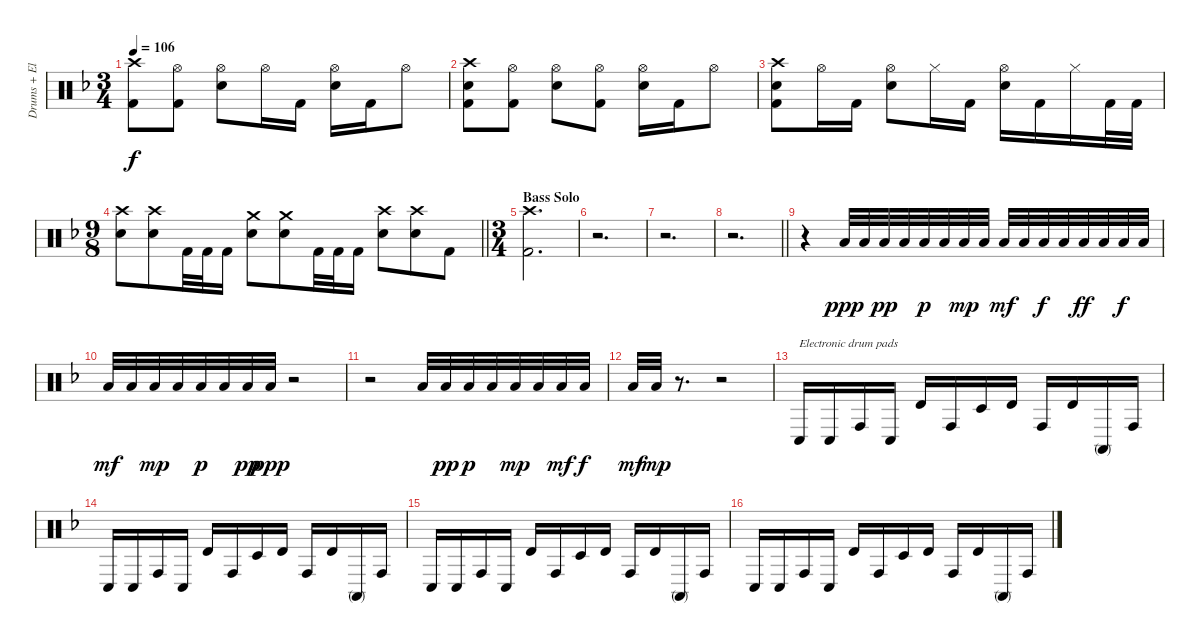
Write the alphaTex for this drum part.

\track ("Drums + Electronic drum pads" "Drums + El") {instrument percussion}
\staff {score}
\articulation defaults
\ts (3 4)
\tempo 106
\clef neutral
\ks dminor
("Crash high (hit)" "Kick (hit) 2").8{dy f} ("Hi-Hat (open)" "Kick (hit) 2").8 ("Hi-Hat (open)" "Snare (hit) 2").8 "Hi-Hat (open)".16 "Kick (hit) 2".16 ("Hi-Hat (open)" "Snare (hit) 2").16 "Kick (hit) 2".16 "Hi-Hat (open)".8 |
("Crash high (hit)" "Snare (hit) 2" "Kick (hit) 2").8 ("Hi-Hat (open)" "Kick (hit) 2").8 ("Hi-Hat (open)" "Snare (hit) 2").8 ("Hi-Hat (open)" "Kick (hit) 2").8 ("Hi-Hat (open)" "Snare (hit) 2").16 "Kick (hit) 2".16 "Hi-Hat (open)".8 |
("Crash high (hit)" "Snare (hit) 2" "Kick (hit) 2").8 "Hi-Hat (open)".16 "Kick (hit) 2".16 ("Hi-Hat (open)" "Snare (hit) 2").8 "Hi-Hat (closed)".16 "Kick (hit) 2".16 ("Hi-Hat (open)" "Snare (hit) 2").16 "Kick (hit) 2".16 "Hi-Hat (closed)".16 "Kick (hit) 2".32 "Kick (hit) 2".32 |
\ts (9 8)
\barLineRight lightlight
("Crash high (hit)" "Snare (hit) 2").8 ("Crash high (hit)" "Snare (hit) 2").8 "Kick (hit) 2".32 "Kick (hit) 2".32 "Kick (hit) 2".16 ("Crash medium (hit)" "Snare (hit) 2").8 ("Crash medium (hit)" "Snare (hit) 2").8 "Kick (hit) 2".32 "Kick (hit) 2".32 "Kick (hit) 2".16 ("Crash high (hit)" "Snare (hit) 2").8 ("Crash high (hit)" "Snare (hit) 2").8 "Kick (hit) 2".8 |
\ts (3 4)
\section ("" "Bass Solo")
("Crash high (hit)" "Kick (hit) 2").2{d} |
r.2{d} |
r.2{d} |
\barLineRight lightlight
r.2{d} |
r.4 "Low Floor Tom (hit)".32{dy ppp} "Low Floor Tom (hit)".32 "Low Floor Tom (hit)".32{dy pp} "Low Floor Tom (hit)".32 "Low Floor Tom (hit)".32{dy p} "Low Floor Tom (hit)".32 "Low Floor Tom (hit)".32{dy mp} "Low Floor Tom (hit)".32 "Low Floor Tom (hit)".32{dy mf} "Low Floor Tom (hit)".32 "Low Floor Tom (hit)".32{dy f} "Low Floor Tom (hit)".32 "Low Floor Tom (hit)".32{dy ff} "Low Floor Tom (hit)".32 "Low Floor Tom (hit)".32{dy f} "Low Floor Tom (hit)".32 |
"Low Floor Tom (hit)".32{dy mf} "Low Floor Tom (hit)".32 "Low Floor Tom (hit)".32{dy mp} "Low Floor Tom (hit)".32 "Low Floor Tom (hit)".32{dy p} "Low Floor Tom (hit)".32 "Low Floor Tom (hit)".32{dy pp} "Low Floor Tom (hit)".32{dy ppp} r.2 |
r.2 "Low Floor Tom (hit)".32 "Low Floor Tom (hit)".32{dy pp} "Low Floor Tom (hit)".32{dy p} "Low Floor Tom (hit)".32 "Low Floor Tom (hit)".32{dy mp} "Low Floor Tom (hit)".32 "Low Floor Tom (hit)".32{dy mf} "Low Floor Tom (hit)".32{dy f} |
"Low Floor Tom (hit)".32{dy mf} "Low Floor Tom (hit)".32{dy mp} r.8{d} r.2 |
"Conga low (hit)".16{txt "Electronic drum pads"} "Conga low (hit)".16 "Conga high (hit)".16 "Conga low (hit)".16 "Timbale high (hit)".16 "Conga high (hit)".16 "Timbale low (hit)".16 "Timbale high (hit)".16 "Conga high (hit)".16 "Timbale high (hit)".16 "Conga high (mute)".16 "Conga high (hit)".16 |
"Conga low (hit)".16 "Conga low (hit)".16 "Conga high (hit)".16 "Conga low (hit)".16 "Timbale high (hit)".16 "Conga high (hit)".16 "Timbale low (hit)".16 "Timbale high (hit)".16 "Conga high (hit)".16 "Timbale high (hit)".16 "Conga high (mute)".16 "Conga high (hit)".16 |
"Conga low (hit)".16 "Conga low (hit)".16 "Conga high (hit)".16 "Conga low (hit)".16 "Timbale high (hit)".16 "Conga high (hit)".16 "Timbale low (hit)".16 "Timbale high (hit)".16 "Conga high (hit)".16 "Timbale high (hit)".16 "Conga high (mute)".16 "Conga high (hit)".16 |
"Conga low (hit)".16 "Conga low (hit)".16 "Conga high (hit)".16 "Conga low (hit)".16 "Timbale high (hit)".16 "Conga high (hit)".16 "Timbale low (hit)".16 "Timbale high (hit)".16 "Conga high (hit)".16 "Timbale high (hit)".16 "Conga high (mute)".16 "Conga high (hit)".16
